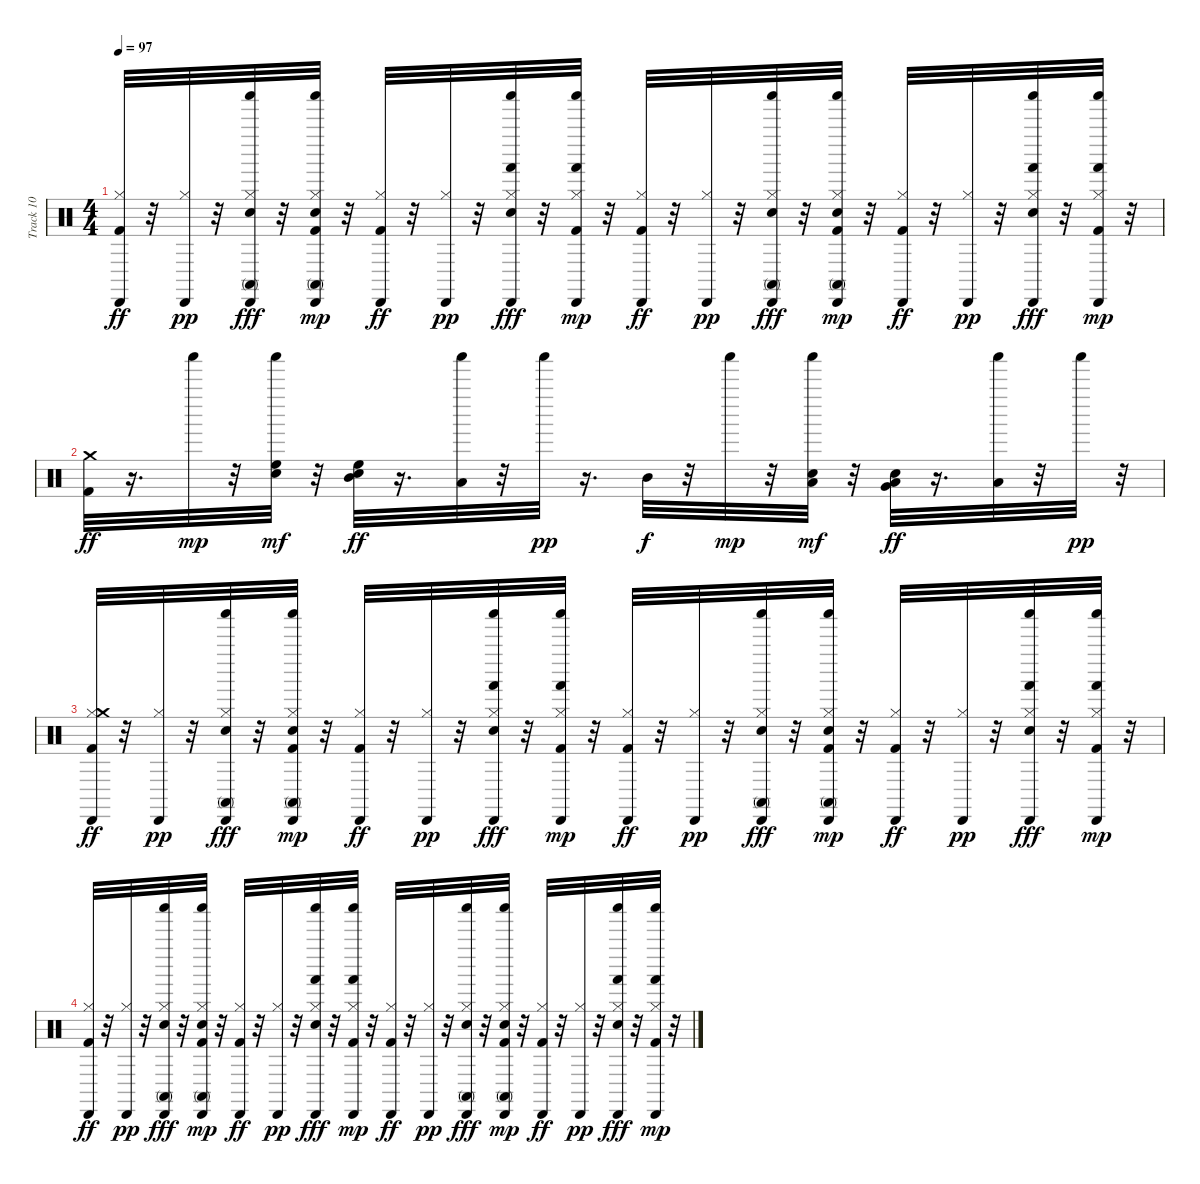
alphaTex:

\track ("Track 10" "Track 10") {instrument percussion}
\staff {score}
\articulation defaults
\ts (4 4)
\tempo 97
\clef neutral
\ks c
("Hi-Hat (closed)" "Cabasa (hit)" "Kick (hit) 2").32{dy ff} r.32 ("Hi-Hat (closed)" "Cabasa (hit)").32{dy pp} r.32 ("Hi-Hat (closed)" "Shaker (hit)" "Conga high (mute)" "Cabasa (hit)" "Snare (hit) 2").32{dy fff} r.32 ("Hi-Hat (closed)" "Shaker (hit)" "Conga high (mute)" "Cabasa (hit)" "Kick (hit) 2" "Snare (hit) 2").32{dy mp} r.32 ("Hi-Hat (closed)" "Cabasa (hit)" "Kick (hit) 2").32{dy ff} r.32 ("Hi-Hat (closed)" "Cabasa (hit)").32{dy pp} r.32 ("Hi-Hat (closed)" "Shaker (hit)" "Hand (hit)" "Cabasa (hit)" "Snare (hit) 2").32{dy fff} r.32 ("Hi-Hat (closed)" "Shaker (hit)" "Hand (hit)" "Cabasa (hit)" "Kick (hit) 2").32{dy mp} r.32 ("Hi-Hat (closed)" "Cabasa (hit)" "Kick (hit) 2").32{dy ff} r.32 ("Hi-Hat (closed)" "Cabasa (hit)").32{dy pp} r.32 ("Hi-Hat (closed)" "Shaker (hit)" "Conga high (mute)" "Cabasa (hit)" "Snare (hit) 2").32{dy fff} r.32 ("Hi-Hat (closed)" "Shaker (hit)" "Conga high (mute)" "Cabasa (hit)" "Kick (hit) 2" "Snare (hit) 2").32{dy mp} r.32 ("Hi-Hat (closed)" "Cabasa (hit)" "Kick (hit) 2").32{dy ff} r.32 ("Hi-Hat (closed)" "Cabasa (hit)").32{dy pp} r.32 ("Hi-Hat (closed)" "Shaker (hit)" "Hand (hit)" "Cabasa (hit)" "Snare (hit) 2").32{dy fff} r.32 ("Hi-Hat (closed)" "Shaker (hit)" "Hand (hit)" "Cabasa (hit)" "Kick (hit) 2").32{dy mp} r.32 |
("Crash medium (hit)" "Kick (hit) 2").32{dy ff} r.16{d} "Shaker (hit)".32{dy mp} r.32 ("Shaker (hit)" "High Floor Tom (hit)" "Electric Snare (hit)").32{dy mf} r.32 ("Mid Tom (hit)" "Electric Snare (hit)" "High Floor Tom (hit)").32{dy ff} r.16{d} ("Shaker (hit)" "Low Tom (hit)").32 r.32 "Shaker (hit)".32{dy pp} r.16{d} "Mid Tom (hit)".32{dy f} r.32 "Shaker (hit)".32{dy mp} r.32 ("Shaker (hit)" "Low Tom (hit)" "Electric Snare (hit)").32{dy mf} r.32 ("Very Low Tom (hit)" "Electric Snare (hit)" "Low Tom (hit)").32{dy ff} r.16{d} ("Shaker (hit)" "Low Floor Tom (hit)").32 r.32 "Shaker (hit)".32{dy pp} r.32 |
("Hi-Hat (closed)" "Cabasa (hit)" "Crash medium (hit)" "Kick (hit) 2").32{dy ff} r.32 ("Hi-Hat (closed)" "Cabasa (hit)").32{dy pp} r.32 ("Hi-Hat (closed)" "Shaker (hit)" "Conga high (mute)" "Cabasa (hit)" "Snare (hit) 2").32{dy fff} r.32 ("Hi-Hat (closed)" "Shaker (hit)" "Conga high (mute)" "Cabasa (hit)" "Snare (hit) 2" "Kick (hit) 2").32{dy mp} r.32 ("Hi-Hat (closed)" "Cabasa (hit)" "Kick (hit) 2").32{dy ff} r.32 ("Hi-Hat (closed)" "Cabasa (hit)").32{dy pp} r.32 ("Hi-Hat (closed)" "Shaker (hit)" "Hand (hit)" "Cabasa (hit)" "Snare (hit) 2").32{dy fff} r.32 ("Hi-Hat (closed)" "Shaker (hit)" "Hand (hit)" "Cabasa (hit)" "Kick (hit) 2").32{dy mp} r.32 ("Hi-Hat (closed)" "Cabasa (hit)" "Kick (hit) 2").32{dy ff} r.32 ("Hi-Hat (closed)" "Cabasa (hit)").32{dy pp} r.32 ("Hi-Hat (closed)" "Shaker (hit)" "Conga high (mute)" "Cabasa (hit)" "Snare (hit) 2").32{dy fff} r.32 ("Hi-Hat (closed)" "Shaker (hit)" "Conga high (mute)" "Cabasa (hit)" "Snare (hit) 2" "Kick (hit) 2").32{dy mp} r.32 ("Hi-Hat (closed)" "Cabasa (hit)" "Kick (hit) 2").32{dy ff} r.32 ("Hi-Hat (closed)" "Cabasa (hit)").32{dy pp} r.32 ("Hi-Hat (closed)" "Shaker (hit)" "Hand (hit)" "Cabasa (hit)" "Snare (hit) 2").32{dy fff} r.32 ("Hi-Hat (closed)" "Shaker (hit)" "Hand (hit)" "Cabasa (hit)" "Kick (hit) 2").32{dy mp} r.32 |
("Hi-Hat (closed)" "Cabasa (hit)" "Kick (hit) 2").32{dy ff} r.32 ("Hi-Hat (closed)" "Cabasa (hit)").32{dy pp} r.32 ("Hi-Hat (closed)" "Shaker (hit)" "Conga high (mute)" "Cabasa (hit)" "Snare (hit) 2").32{dy fff} r.32 ("Hi-Hat (closed)" "Shaker (hit)" "Conga high (mute)" "Cabasa (hit)" "Kick (hit) 2" "Snare (hit) 2").32{dy mp} r.32 ("Hi-Hat (closed)" "Cabasa (hit)" "Kick (hit) 2").32{dy ff} r.32 ("Hi-Hat (closed)" "Cabasa (hit)").32{dy pp} r.32 ("Hi-Hat (closed)" "Shaker (hit)" "Hand (hit)" "Cabasa (hit)" "Snare (hit) 2").32{dy fff} r.32 ("Hi-Hat (closed)" "Shaker (hit)" "Hand (hit)" "Cabasa (hit)" "Kick (hit) 2").32{dy mp} r.32 ("Hi-Hat (closed)" "Cabasa (hit)" "Kick (hit) 2").32{dy ff} r.32 ("Hi-Hat (closed)" "Cabasa (hit)").32{dy pp} r.32 ("Hi-Hat (closed)" "Shaker (hit)" "Conga high (mute)" "Cabasa (hit)" "Snare (hit) 2").32{dy fff} r.32 ("Hi-Hat (closed)" "Shaker (hit)" "Conga high (mute)" "Cabasa (hit)" "Snare (hit) 2" "Kick (hit) 2").32{dy mp} r.32 ("Hi-Hat (closed)" "Cabasa (hit)" "Kick (hit) 2").32{dy ff} r.32 ("Hi-Hat (closed)" "Cabasa (hit)").32{dy pp} r.32 ("Hi-Hat (closed)" "Shaker (hit)" "Hand (hit)" "Cabasa (hit)" "Snare (hit) 2").32{dy fff} r.32 ("Hi-Hat (closed)" "Shaker (hit)" "Hand (hit)" "Cabasa (hit)" "Kick (hit) 2").32{dy mp} r.32
